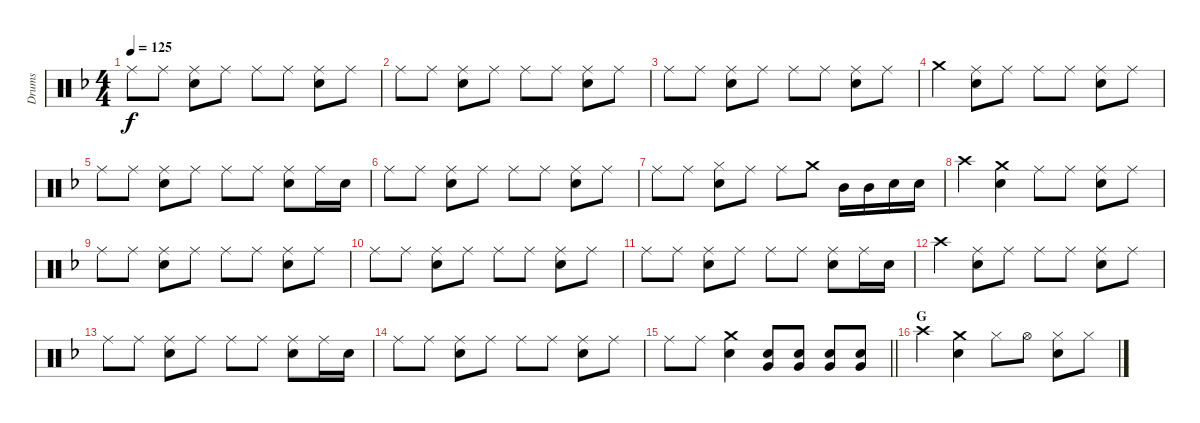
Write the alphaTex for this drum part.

\track ("Drums" "Drums") {instrument percussion}
\staff {score}
\articulation defaults
\ts (4 4)
\tempo 125
\clef neutral
\ks f "Ride (middle)".8{dy f} "Ride (middle)".8
("Ride (middle)" "Snare (hit) 2").8 "Ride (middle)".8 "Ride (middle)".8 "Ride (middle)".8 ("Ride (middle)" "Snare (hit) 2").8 "Ride (middle)".8 |
"Ride (middle)".8 "Ride (middle)".8 ("Ride (middle)" "Snare (hit) 2").8 "Ride (middle)".8 "Ride (middle)".8 "Ride (middle)".8 ("Ride (middle)" "Snare (hit) 2").8 "Ride (middle)".8 |
"Ride (middle)".8 "Ride (middle)".8 ("Ride (middle)" "Snare (hit) 2").8 "Ride (middle)".8 "Ride (middle)".8 "Ride (middle)".8 ("Ride (middle)" "Snare (hit) 2").8 "Ride (middle)".8 |
"Crash medium (hit)".4 ("Ride (middle)" "Snare (hit) 2").8 "Ride (middle)".8 "Ride (middle)".8 "Ride (middle)".8 ("Ride (middle)" "Snare (hit) 2").8 "Ride (middle)".8 |
"Ride (middle)".8 "Ride (middle)".8 ("Ride (middle)" "Snare (hit) 2").8 "Ride (middle)".8 "Ride (middle)".8 "Ride (middle)".8 ("Ride (middle)" "Snare (hit) 2").8 "Ride (middle)".16 "Snare (hit) 2".16 |
"Ride (middle)".8 "Ride (middle)".8 ("Ride (middle)" "Snare (hit) 2").8 "Ride (middle)".8 "Ride (middle)".8 "Ride (middle)".8 ("Ride (middle)" "Snare (hit) 2").8 "Ride (middle)".8 |
"Ride (middle)".8 "Ride (middle)".8 ("Hi-Hat (closed)" "Snare (hit) 2").8 "Ride (middle)".8 "Ride (middle)".8 "Crash medium (hit)".8 "Mid Tom (hit)".16 "Mid Tom (hit)".16 "Snare (hit) 2".16 "Snare (hit) 2".16 |
"Crash high (hit)".4 ("Crash medium (hit)" "Snare (hit) 2").4 "Ride (middle)".8 "Ride (middle)".8 ("Ride (middle)" "Snare (hit) 2").8 "Ride (middle)".8 |
"Ride (middle)".8 "Ride (middle)".8 ("Ride (middle)" "Snare (hit) 2").8 "Ride (middle)".8 "Ride (middle)".8 "Ride (middle)".8 ("Ride (middle)" "Snare (hit) 2").8 "Ride (middle)".8 |
"Ride (middle)".8 "Ride (middle)".8 ("Ride (middle)" "Snare (hit) 2").8 "Ride (middle)".8 "Ride (middle)".8 "Ride (middle)".8 ("Ride (middle)" "Snare (hit) 2").8 "Ride (middle)".8 |
"Ride (middle)".8 "Ride (middle)".8 ("Ride (middle)" "Snare (hit) 2").8 "Ride (middle)".8 "Ride (middle)".8 "Ride (middle)".8 ("Ride (middle)" "Snare (hit) 2").8 "Ride (middle)".16 "Snare (hit) 2".16 |
"Crash high (hit)".4 ("Ride (middle)" "Snare (hit) 2").8 "Ride (middle)".8 "Ride (middle)".8 "Ride (middle)".8 ("Ride (middle)" "Snare (hit) 2").8 "Ride (middle)".8 |
"Ride (middle)".8 "Ride (middle)".8 ("Ride (middle)" "Snare (hit) 2").8 "Ride (middle)".8 "Ride (middle)".8 "Ride (middle)".8 ("Ride (middle)" "Snare (hit) 2").8 "Ride (middle)".16 "Snare (hit) 2".16 |
"Ride (middle)".8 "Ride (middle)".8 ("Ride (middle)" "Snare (hit) 2").8 "Ride (middle)".8 "Ride (middle)".8 "Ride (middle)".8 ("Ride (middle)" "Snare (hit) 2").8 "Ride (middle)".8 |
\barLineRight lightlight "Ride (middle)".8 "Ride (middle)".8
("Crash medium (hit)" "Snare (hit) 2").4 ("Snare (hit) 2" "Very Low Tom (hit)").8 ("Snare (hit) 2" "Very Low Tom (hit)").8 ("Snare (hit) 2" "Very Low Tom (hit)").8 ("Snare (hit) 2" "Very Low Tom (hit)").8 |
\section ("" "G")
"Crash high (hit)".4 ("Crash medium (hit)" "Snare (hit) 2").4 "Hi-Hat (closed)".8 "Hi-Hat (open)".8 ("Hi-Hat (closed)" "Snare (hit) 2").8 "Hi-Hat (closed)".8
